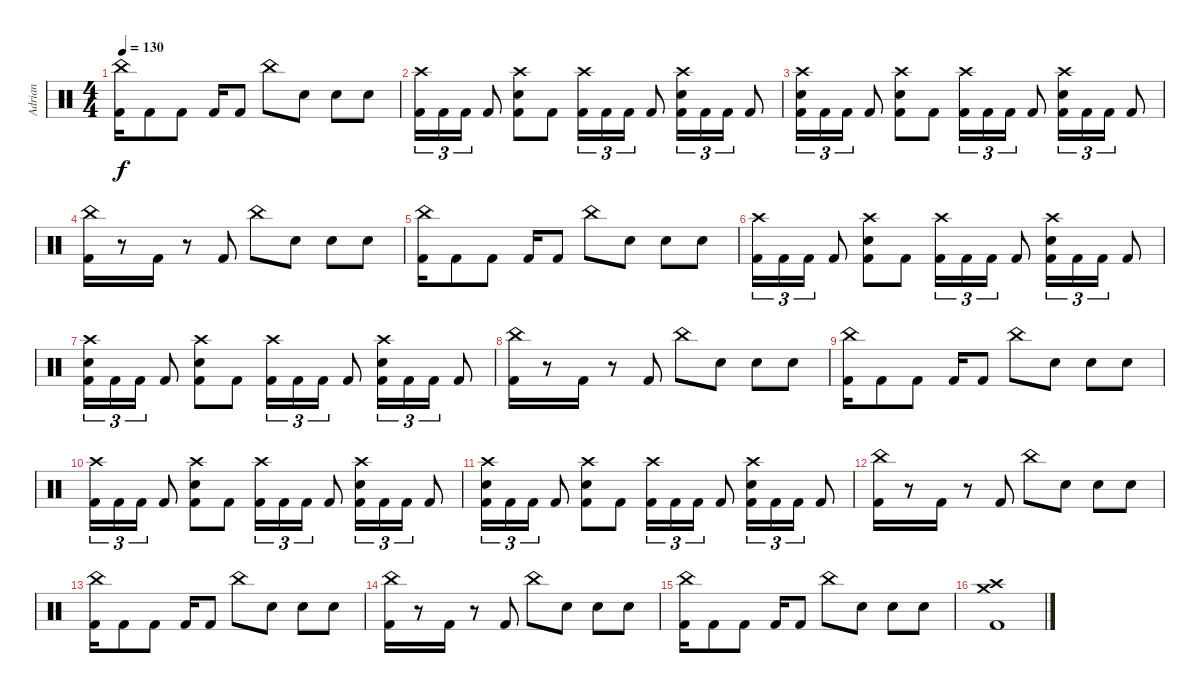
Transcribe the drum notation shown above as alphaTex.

\track ("Adrian" "Adrian") {instrument percussion}
\staff {score}
\articulation defaults
\ts (4 4)
\tempo 130
\clef neutral
\ks c
("China (hit)" "Kick (hit) 2").16{dy f} "Kick (hit) 2".8 "Kick (hit) 2".8 "Kick (hit) 2".16 "Kick (hit) 2".8 "China (hit)".8 "Snare (hit) 2".8 "Snare (hit) 2".8 "Snare (hit) 2".8 |
("Crash high (hit)" "Kick (hit) 2").16{tu (3 2)} "Kick (hit) 2".16{tu (3 2)} "Kick (hit) 2".16{tu (3 2)} "Kick (hit) 2".8 ("Crash high (hit)" "Snare (hit) 2" "Kick (hit) 2").8 "Kick (hit) 2".8 ("Crash high (hit)" "Kick (hit) 2").16{tu (3 2)} "Kick (hit) 2".16{tu (3 2)} "Kick (hit) 2".16{tu (3 2)} "Kick (hit) 2".8 ("Crash high (hit)" "Snare (hit) 2" "Kick (hit) 2").16{tu (3 2)} "Kick (hit) 2".16{tu (3 2)} "Kick (hit) 2".16{tu (3 2)} "Kick (hit) 2".8 |
("Crash high (hit)" "Snare (hit) 2" "Kick (hit) 2").16{tu (3 2)} "Kick (hit) 2".16{tu (3 2)} "Kick (hit) 2".16{tu (3 2)} "Kick (hit) 2".8 ("Crash high (hit)" "Snare (hit) 2" "Kick (hit) 2").8 "Kick (hit) 2".8 ("Crash high (hit)" "Kick (hit) 2").16{tu (3 2)} "Kick (hit) 2".16{tu (3 2)} "Kick (hit) 2".16{tu (3 2)} "Kick (hit) 2".8 ("Crash high (hit)" "Snare (hit) 2" "Kick (hit) 2").16{tu (3 2)} "Kick (hit) 2".16{tu (3 2)} "Kick (hit) 2".16{tu (3 2)} "Kick (hit) 2".8 |
("China (hit)" "Kick (hit) 2").16 r.8 "Kick (hit) 2".16 r.8 "Kick (hit) 2".8 "China (hit)".8 "Snare (hit) 2".8 "Snare (hit) 2".8 "Snare (hit) 2".8 |
("China (hit)" "Kick (hit) 2").16 "Kick (hit) 2".8 "Kick (hit) 2".8 "Kick (hit) 2".16 "Kick (hit) 2".8 "China (hit)".8 "Snare (hit) 2".8 "Snare (hit) 2".8 "Snare (hit) 2".8 |
("Crash high (hit)" "Kick (hit) 2").16{tu (3 2)} "Kick (hit) 2".16{tu (3 2)} "Kick (hit) 2".16{tu (3 2)} "Kick (hit) 2".8 ("Crash high (hit)" "Snare (hit) 2" "Kick (hit) 2").8 "Kick (hit) 2".8 ("Crash high (hit)" "Kick (hit) 2").16{tu (3 2)} "Kick (hit) 2".16{tu (3 2)} "Kick (hit) 2".16{tu (3 2)} "Kick (hit) 2".8 ("Crash high (hit)" "Snare (hit) 2" "Kick (hit) 2").16{tu (3 2)} "Kick (hit) 2".16{tu (3 2)} "Kick (hit) 2".16{tu (3 2)} "Kick (hit) 2".8 |
("Crash high (hit)" "Snare (hit) 2" "Kick (hit) 2").16{tu (3 2)} "Kick (hit) 2".16{tu (3 2)} "Kick (hit) 2".16{tu (3 2)} "Kick (hit) 2".8 ("Crash high (hit)" "Snare (hit) 2" "Kick (hit) 2").8 "Kick (hit) 2".8 ("Crash high (hit)" "Kick (hit) 2").16{tu (3 2)} "Kick (hit) 2".16{tu (3 2)} "Kick (hit) 2".16{tu (3 2)} "Kick (hit) 2".8 ("Crash high (hit)" "Snare (hit) 2" "Kick (hit) 2").16{tu (3 2)} "Kick (hit) 2".16{tu (3 2)} "Kick (hit) 2".16{tu (3 2)} "Kick (hit) 2".8 |
("China (hit)" "Kick (hit) 2").16 r.8 "Kick (hit) 2".16 r.8 "Kick (hit) 2".8 "China (hit)".8 "Snare (hit) 2".8 "Snare (hit) 2".8 "Snare (hit) 2".8 |
("China (hit)" "Kick (hit) 2").16 "Kick (hit) 2".8 "Kick (hit) 2".8 "Kick (hit) 2".16 "Kick (hit) 2".8 "China (hit)".8 "Snare (hit) 2".8 "Snare (hit) 2".8 "Snare (hit) 2".8 |
("Crash high (hit)" "Kick (hit) 2").16{tu (3 2)} "Kick (hit) 2".16{tu (3 2)} "Kick (hit) 2".16{tu (3 2)} "Kick (hit) 2".8 ("Crash high (hit)" "Snare (hit) 2" "Kick (hit) 2").8 "Kick (hit) 2".8 ("Crash high (hit)" "Kick (hit) 2").16{tu (3 2)} "Kick (hit) 2".16{tu (3 2)} "Kick (hit) 2".16{tu (3 2)} "Kick (hit) 2".8 ("Crash high (hit)" "Snare (hit) 2" "Kick (hit) 2").16{tu (3 2)} "Kick (hit) 2".16{tu (3 2)} "Kick (hit) 2".16{tu (3 2)} "Kick (hit) 2".8 |
("Crash high (hit)" "Snare (hit) 2" "Kick (hit) 2").16{tu (3 2)} "Kick (hit) 2".16{tu (3 2)} "Kick (hit) 2".16{tu (3 2)} "Kick (hit) 2".8 ("Crash high (hit)" "Snare (hit) 2" "Kick (hit) 2").8 "Kick (hit) 2".8 ("Crash high (hit)" "Kick (hit) 2").16{tu (3 2)} "Kick (hit) 2".16{tu (3 2)} "Kick (hit) 2".16{tu (3 2)} "Kick (hit) 2".8 ("Crash high (hit)" "Snare (hit) 2" "Kick (hit) 2").16{tu (3 2)} "Kick (hit) 2".16{tu (3 2)} "Kick (hit) 2".16{tu (3 2)} "Kick (hit) 2".8 |
("China (hit)" "Kick (hit) 2").16 r.8 "Kick (hit) 2".16 r.8 "Kick (hit) 2".8 "China (hit)".8 "Snare (hit) 2".8 "Snare (hit) 2".8 "Snare (hit) 2".8 |
("China (hit)" "Kick (hit) 2").16 "Kick (hit) 2".8 "Kick (hit) 2".8 "Kick (hit) 2".16 "Kick (hit) 2".8 "China (hit)".8 "Snare (hit) 2".8 "Snare (hit) 2".8 "Snare (hit) 2".8 |
("China (hit)" "Kick (hit) 2").16 r.8 "Kick (hit) 2".16 r.8 "Kick (hit) 2".8 "China (hit)".8 "Snare (hit) 2".8 "Snare (hit) 2".8 "Snare (hit) 2".8 |
("China (hit)" "Kick (hit) 2").16 "Kick (hit) 2".8 "Kick (hit) 2".8 "Kick (hit) 2".16 "Kick (hit) 2".8 "China (hit)".8 "Snare (hit) 2".8 "Snare (hit) 2".8 "Snare (hit) 2".8 |
("Crash high (hit)" "Crash medium (hit)" "Kick (hit) 2").1
